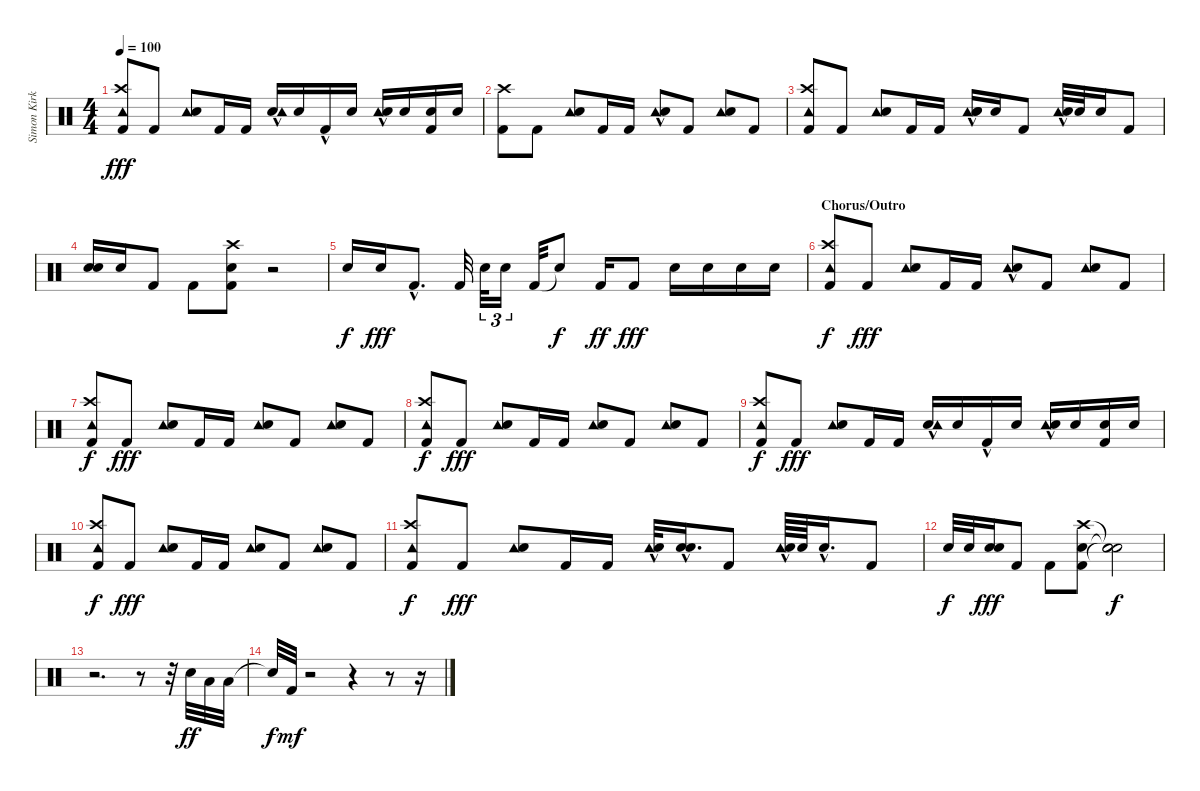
\track ("Simon Kirke" "Simon Kirk") {instrument percussion}
\staff {score}
\articulation defaults
\ts (4 4)
\tempo 100
\clef neutral
\ks c
("Tambourine (hit)" "Crash high (hit)" "Kick (hit) 2").8{dy fff} "Kick (hit) 2".8 ("Tambourine (hit)" "Electric Snare (hit)").8 "Kick (hit) 2".16 "Kick (hit) 2".16 ("Electric Snare (hit)" "Tambourine (hit)"{hac}).16 "Electric Snare (hit)".16 "Kick (hit) 2"{hac}.16 "Electric Snare (hit)".16 ("Tambourine (hit)"{hac} "Electric Snare (hit)").16 "Electric Snare (hit)".16 ("Electric Snare (hit)" "Kick (hit) 2").16 "Electric Snare (hit)".16 |
("Crash high (hit)" "Kick (hit) 2").8 "Kick (hit) 2".8 ("Tambourine (hit)" "Electric Snare (hit)").8 "Kick (hit) 2".16 "Kick (hit) 2".16 ("Tambourine (hit)"{hac} "Electric Snare (hit)").8 "Kick (hit) 2".8 ("Tambourine (hit)" "Electric Snare (hit)").8 "Kick (hit) 2".8 |
("Tambourine (hit)" "Crash high (hit)" "Kick (hit) 2").8 "Kick (hit) 2".8 ("Tambourine (hit)" "Electric Snare (hit)").8 "Kick (hit) 2".16 "Kick (hit) 2".16 ("Tambourine (hit)"{hac} "Electric Snare (hit)" "Electric Snare (hit)").16 "Electric Snare (hit)".16 "Kick (hit) 2".8 ("Tambourine (hit)"{hac} "Electric Snare (hit)").32 "Electric Snare (hit)".32 "Electric Snare (hit)".16 "Kick (hit) 2".8 |
("Electric Snare (hit)" "Electric Snare (hit)").16 "Electric Snare (hit)".16 "Kick (hit) 2".8 "Kick (hit) 2".8 ("Electric Snare (hit)" "Crash high (hit)" "Kick (hit) 2").8 r.2 |
"Electric Snare (hit)".16{dy f} "Electric Snare (hit)".16{dy fff} "Kick (hit) 2"{hac}.8{d} "Kick (hit) 2".32 "Electric Snare (hit)".32{tu (3 2)} "Electric Snare (hit)".16{tu (3 2)} "Kick (hit) 2".32 "Snare (hit)"{t}.8{dy f} "Kick (hit) 2".16{dy ff} "Kick (hit) 2".8{dy fff} "Electric Snare (hit)".16 "Electric Snare (hit)".16 "Electric Snare (hit)".16 "Electric Snare (hit)".16 |
\section ("" "Chorus/Outro")
("Tambourine (hit)" "Crash high (hit)" "Kick (hit) 2").8{dy f} "Kick (hit) 2".8{dy fff} ("Tambourine (hit)" "Electric Snare (hit)").8 "Kick (hit) 2".16 "Kick (hit) 2".16 ("Tambourine (hit)"{hac} "Electric Snare (hit)").8 "Kick (hit) 2".8 ("Tambourine (hit)" "Electric Snare (hit)").8 "Kick (hit) 2".8 |
("Tambourine (hit)" "Crash high (hit)" "Kick (hit) 2").8{dy f} "Kick (hit) 2".8{dy fff} ("Tambourine (hit)" "Electric Snare (hit)").8 "Kick (hit) 2".16 "Kick (hit) 2".16 ("Tambourine (hit)" "Electric Snare (hit)").8 "Kick (hit) 2".8 ("Tambourine (hit)" "Electric Snare (hit)").8 "Kick (hit) 2".8 |
("Tambourine (hit)" "Crash high (hit)" "Kick (hit) 2").8{dy f} "Kick (hit) 2".8{dy fff} ("Tambourine (hit)" "Electric Snare (hit)").8 "Kick (hit) 2".16 "Kick (hit) 2".16 ("Tambourine (hit)" "Electric Snare (hit)").8 "Kick (hit) 2".8 ("Tambourine (hit)" "Electric Snare (hit)").8 "Kick (hit) 2".8 |
("Tambourine (hit)" "Crash high (hit)" "Kick (hit) 2").8{dy f} "Kick (hit) 2".8{dy fff} ("Tambourine (hit)" "Electric Snare (hit)").8 "Kick (hit) 2".16 "Kick (hit) 2".16 ("Electric Snare (hit)" "Tambourine (hit)"{hac}).16 "Electric Snare (hit)".16 "Kick (hit) 2"{hac}.16 "Electric Snare (hit)".16 ("Tambourine (hit)"{hac} "Electric Snare (hit)").16 "Electric Snare (hit)".16 ("Electric Snare (hit)" "Kick (hit) 2").16 "Electric Snare (hit)".16 |
("Tambourine (hit)" "Crash high (hit)" "Kick (hit) 2").8{dy f} "Kick (hit) 2".8{dy fff} ("Tambourine (hit)" "Electric Snare (hit)").8 "Kick (hit) 2".16 "Kick (hit) 2".16 ("Tambourine (hit)" "Electric Snare (hit)").8 "Kick (hit) 2".8 ("Tambourine (hit)" "Electric Snare (hit)").8 "Kick (hit) 2".8 |
("Tambourine (hit)" "Crash high (hit)" "Kick (hit) 2").8{dy f} "Kick (hit) 2".8{dy fff} ("Tambourine (hit)" "Electric Snare (hit)").8 "Kick (hit) 2".16 "Kick (hit) 2".16 ("Tambourine (hit)"{hac} "Electric Snare (hit)").32 ("Electric Snare (hit)"{hac} "Electric Snare (hit)").16{d} "Kick (hit) 2".8 ("Tambourine (hit)"{hac} "Electric Snare (hit)").64 "Electric Snare (hit)".64 "Electric Snare (hit)"{hac}.16{d} "Kick (hit) 2".8 |
"Electric Snare (hit)".32{dy f} "Electric Snare (hit)".32 ("Electric Snare (hit)" "Electric Snare (hit)").16{dy fff} "Kick (hit) 2".8 "Kick (hit) 2".8 ("Electric Snare (hit)" "Crash high (hit)" "Kick (hit) 2").8 ("Snare (hit)"{t} "Snare (hit)"{t} "Snare (hit)"{t}).2{dy f} |
r.2{d} r.8 r.32 "Electric Snare (hit)".32{dy ff} "Low Tom (hit)".32 "Low Floor Tom (hit)".32 |
"Snare (hit)"{t}.32{dy f} "Kick (hit) 2".32{dy mf} r.2 r.4 r.8 r.16
